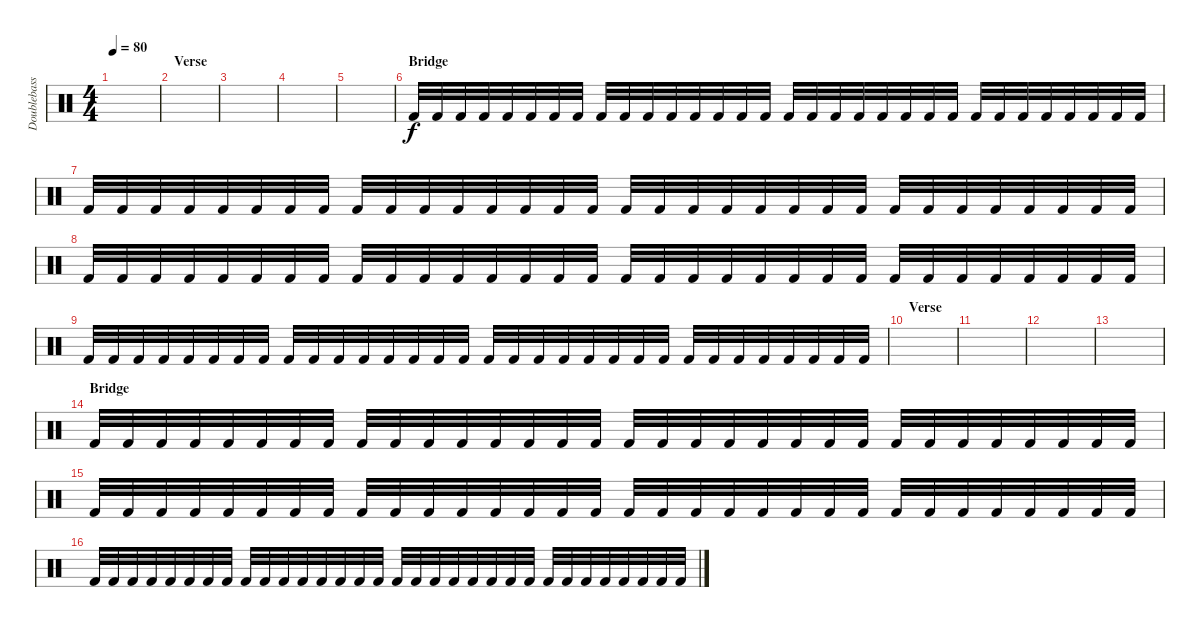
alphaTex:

\track ("Doublebass" "Doublebass") {instrument percussion}
\staff {score}
\articulation defaults
\ts (4 4)
\tempo 80
\clef neutral
\ks c
|
\section ("" "Verse")
|
|
|
|
\section ("" "Bridge")
"Kick (hit) 2".32 "Kick (hit) 2".32 "Kick (hit) 2".32 "Kick (hit) 2".32 "Kick (hit) 2".32 "Kick (hit) 2".32 "Kick (hit) 2".32 "Kick (hit) 2".32 "Kick (hit) 2".32 "Kick (hit) 2".32 "Kick (hit) 2".32 "Kick (hit) 2".32 "Kick (hit) 2".32 "Kick (hit) 2".32 "Kick (hit) 2".32 "Kick (hit) 2".32 "Kick (hit) 2".32 "Kick (hit) 2".32 "Kick (hit) 2".32 "Kick (hit) 2".32 "Kick (hit) 2".32 "Kick (hit) 2".32 "Kick (hit) 2".32 "Kick (hit) 2".32 "Kick (hit) 2".32 "Kick (hit) 2".32 "Kick (hit) 2".32 "Kick (hit) 2".32 "Kick (hit) 2".32 "Kick (hit) 2".32 "Kick (hit) 2".32 "Kick (hit) 2".32 |
"Kick (hit) 2".32 "Kick (hit) 2".32 "Kick (hit) 2".32 "Kick (hit) 2".32 "Kick (hit) 2".32 "Kick (hit) 2".32 "Kick (hit) 2".32 "Kick (hit) 2".32 "Kick (hit) 2".32 "Kick (hit) 2".32 "Kick (hit) 2".32 "Kick (hit) 2".32 "Kick (hit) 2".32 "Kick (hit) 2".32 "Kick (hit) 2".32 "Kick (hit) 2".32 "Kick (hit) 2".32 "Kick (hit) 2".32 "Kick (hit) 2".32 "Kick (hit) 2".32 "Kick (hit) 2".32 "Kick (hit) 2".32 "Kick (hit) 2".32 "Kick (hit) 2".32 "Kick (hit) 2".32 "Kick (hit) 2".32 "Kick (hit) 2".32 "Kick (hit) 2".32 "Kick (hit) 2".32 "Kick (hit) 2".32 "Kick (hit) 2".32 "Kick (hit) 2".32 |
"Kick (hit) 2".32 "Kick (hit) 2".32 "Kick (hit) 2".32 "Kick (hit) 2".32 "Kick (hit) 2".32 "Kick (hit) 2".32 "Kick (hit) 2".32 "Kick (hit) 2".32 "Kick (hit) 2".32 "Kick (hit) 2".32 "Kick (hit) 2".32 "Kick (hit) 2".32 "Kick (hit) 2".32 "Kick (hit) 2".32 "Kick (hit) 2".32 "Kick (hit) 2".32 "Kick (hit) 2".32 "Kick (hit) 2".32 "Kick (hit) 2".32 "Kick (hit) 2".32 "Kick (hit) 2".32 "Kick (hit) 2".32 "Kick (hit) 2".32 "Kick (hit) 2".32 "Kick (hit) 2".32 "Kick (hit) 2".32 "Kick (hit) 2".32 "Kick (hit) 2".32 "Kick (hit) 2".32 "Kick (hit) 2".32 "Kick (hit) 2".32 "Kick (hit) 2".32 |
"Kick (hit) 2".32 "Kick (hit) 2".32 "Kick (hit) 2".32 "Kick (hit) 2".32 "Kick (hit) 2".32 "Kick (hit) 2".32 "Kick (hit) 2".32 "Kick (hit) 2".32 "Kick (hit) 2".32 "Kick (hit) 2".32 "Kick (hit) 2".32 "Kick (hit) 2".32 "Kick (hit) 2".32 "Kick (hit) 2".32 "Kick (hit) 2".32 "Kick (hit) 2".32 "Kick (hit) 2".32 "Kick (hit) 2".32 "Kick (hit) 2".32 "Kick (hit) 2".32 "Kick (hit) 2".32 "Kick (hit) 2".32 "Kick (hit) 2".32 "Kick (hit) 2".32 "Kick (hit) 2".32 "Kick (hit) 2".32 "Kick (hit) 2".32 "Kick (hit) 2".32 "Kick (hit) 2".32 "Kick (hit) 2".32 "Kick (hit) 2".32 "Kick (hit) 2".32 |
\section ("" "Verse")
|
|
|
|
\section ("" "Bridge")
"Kick (hit) 2".32 "Kick (hit) 2".32 "Kick (hit) 2".32 "Kick (hit) 2".32 "Kick (hit) 2".32 "Kick (hit) 2".32 "Kick (hit) 2".32 "Kick (hit) 2".32 "Kick (hit) 2".32 "Kick (hit) 2".32 "Kick (hit) 2".32 "Kick (hit) 2".32 "Kick (hit) 2".32 "Kick (hit) 2".32 "Kick (hit) 2".32 "Kick (hit) 2".32 "Kick (hit) 2".32 "Kick (hit) 2".32 "Kick (hit) 2".32 "Kick (hit) 2".32 "Kick (hit) 2".32 "Kick (hit) 2".32 "Kick (hit) 2".32 "Kick (hit) 2".32 "Kick (hit) 2".32 "Kick (hit) 2".32 "Kick (hit) 2".32 "Kick (hit) 2".32 "Kick (hit) 2".32 "Kick (hit) 2".32 "Kick (hit) 2".32 "Kick (hit) 2".32 |
"Kick (hit) 2".32 "Kick (hit) 2".32 "Kick (hit) 2".32 "Kick (hit) 2".32 "Kick (hit) 2".32 "Kick (hit) 2".32 "Kick (hit) 2".32 "Kick (hit) 2".32 "Kick (hit) 2".32 "Kick (hit) 2".32 "Kick (hit) 2".32 "Kick (hit) 2".32 "Kick (hit) 2".32 "Kick (hit) 2".32 "Kick (hit) 2".32 "Kick (hit) 2".32 "Kick (hit) 2".32 "Kick (hit) 2".32 "Kick (hit) 2".32 "Kick (hit) 2".32 "Kick (hit) 2".32 "Kick (hit) 2".32 "Kick (hit) 2".32 "Kick (hit) 2".32 "Kick (hit) 2".32 "Kick (hit) 2".32 "Kick (hit) 2".32 "Kick (hit) 2".32 "Kick (hit) 2".32 "Kick (hit) 2".32 "Kick (hit) 2".32 "Kick (hit) 2".32 |
"Kick (hit) 2".32 "Kick (hit) 2".32 "Kick (hit) 2".32 "Kick (hit) 2".32 "Kick (hit) 2".32 "Kick (hit) 2".32 "Kick (hit) 2".32 "Kick (hit) 2".32 "Kick (hit) 2".32 "Kick (hit) 2".32 "Kick (hit) 2".32 "Kick (hit) 2".32 "Kick (hit) 2".32 "Kick (hit) 2".32 "Kick (hit) 2".32 "Kick (hit) 2".32 "Kick (hit) 2".32 "Kick (hit) 2".32 "Kick (hit) 2".32 "Kick (hit) 2".32 "Kick (hit) 2".32 "Kick (hit) 2".32 "Kick (hit) 2".32 "Kick (hit) 2".32 "Kick (hit) 2".32 "Kick (hit) 2".32 "Kick (hit) 2".32 "Kick (hit) 2".32 "Kick (hit) 2".32 "Kick (hit) 2".32 "Kick (hit) 2".32 "Kick (hit) 2".32
